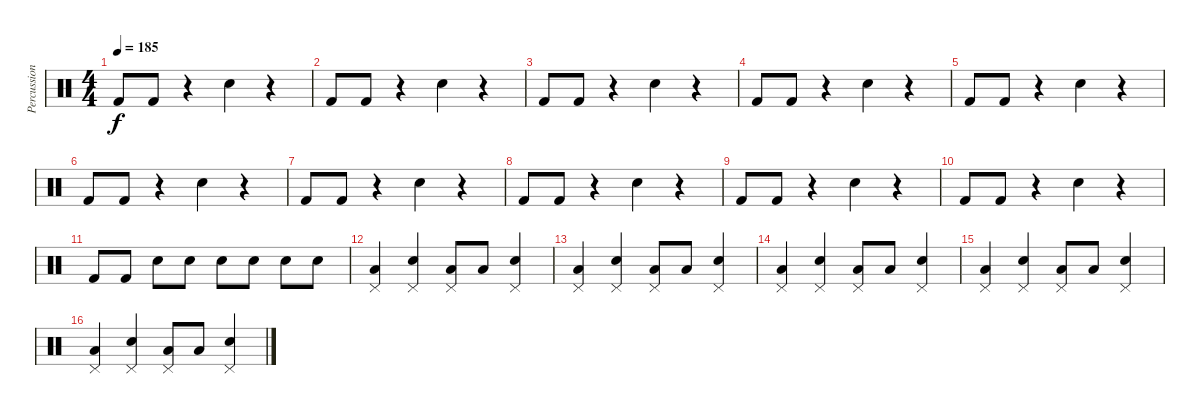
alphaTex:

\track ("Percussion" "Percussion") {instrument percussion}
\staff {score}
\articulation defaults
\ts (4 4)
\tempo 185
\clef neutral
\ks c "Kick (hit) 2".8{dy f} "Kick (hit) 2".8
r.4 "Snare (hit) 2".4 r.4 |
"Kick (hit) 2".8 "Kick (hit) 2".8 r.4 "Snare (hit) 2".4 r.4 |
"Kick (hit) 2".8 "Kick (hit) 2".8 r.4 "Snare (hit) 2".4 r.4 |
"Kick (hit) 2".8 "Kick (hit) 2".8 r.4 "Snare (hit) 2".4 r.4 |
"Kick (hit) 2".8 "Kick (hit) 2".8 r.4 "Snare (hit) 2".4 r.4 |
"Kick (hit) 2".8 "Kick (hit) 2".8 r.4 "Snare (hit) 2".4 r.4 |
"Kick (hit) 2".8 "Kick (hit) 2".8 r.4 "Snare (hit) 2".4 r.4 |
"Kick (hit) 2".8 "Kick (hit) 2".8 r.4 "Snare (hit) 2".4 r.4 |
"Kick (hit) 2".8 "Kick (hit) 2".8 r.4 "Snare (hit) 2".4 r.4 |
"Kick (hit) 2".8 "Kick (hit) 2".8 r.4 "Snare (hit) 2".4 r.4 |
"Kick (hit) 2".8 "Kick (hit) 2".8 "Snare (hit) 2".8 "Snare (hit) 2".8 "Snare (hit) 2".8 "Snare (hit) 2".8 "Snare (hit) 2".8 "Snare (hit) 2".8 |
("Pedal Hi-Hat (hit)" "Low Tom (hit)").4 ("Pedal Hi-Hat (hit)" "Snare (hit) 2").4 ("Pedal Hi-Hat (hit)" "Low Tom (hit)").8 "Low Tom (hit)".8 ("Pedal Hi-Hat (hit)" "Snare (hit) 2").4 |
("Pedal Hi-Hat (hit)" "Low Tom (hit)").4 ("Pedal Hi-Hat (hit)" "Snare (hit) 2").4 ("Pedal Hi-Hat (hit)" "Low Tom (hit)").8 "Low Tom (hit)".8 ("Pedal Hi-Hat (hit)" "Snare (hit) 2").4 |
("Pedal Hi-Hat (hit)" "Low Tom (hit)").4 ("Pedal Hi-Hat (hit)" "Snare (hit) 2").4 ("Pedal Hi-Hat (hit)" "Low Tom (hit)").8 "Low Tom (hit)".8 ("Pedal Hi-Hat (hit)" "Snare (hit) 2").4 |
("Pedal Hi-Hat (hit)" "Low Tom (hit)").4 ("Pedal Hi-Hat (hit)" "Snare (hit) 2").4 ("Pedal Hi-Hat (hit)" "Low Tom (hit)").8 "Low Tom (hit)".8 ("Pedal Hi-Hat (hit)" "Snare (hit) 2").4 |
("Pedal Hi-Hat (hit)" "Low Tom (hit)").4 ("Pedal Hi-Hat (hit)" "Snare (hit) 2").4 ("Pedal Hi-Hat (hit)" "Low Tom (hit)").8 "Low Tom (hit)".8 ("Pedal Hi-Hat (hit)" "Snare (hit) 2").4
